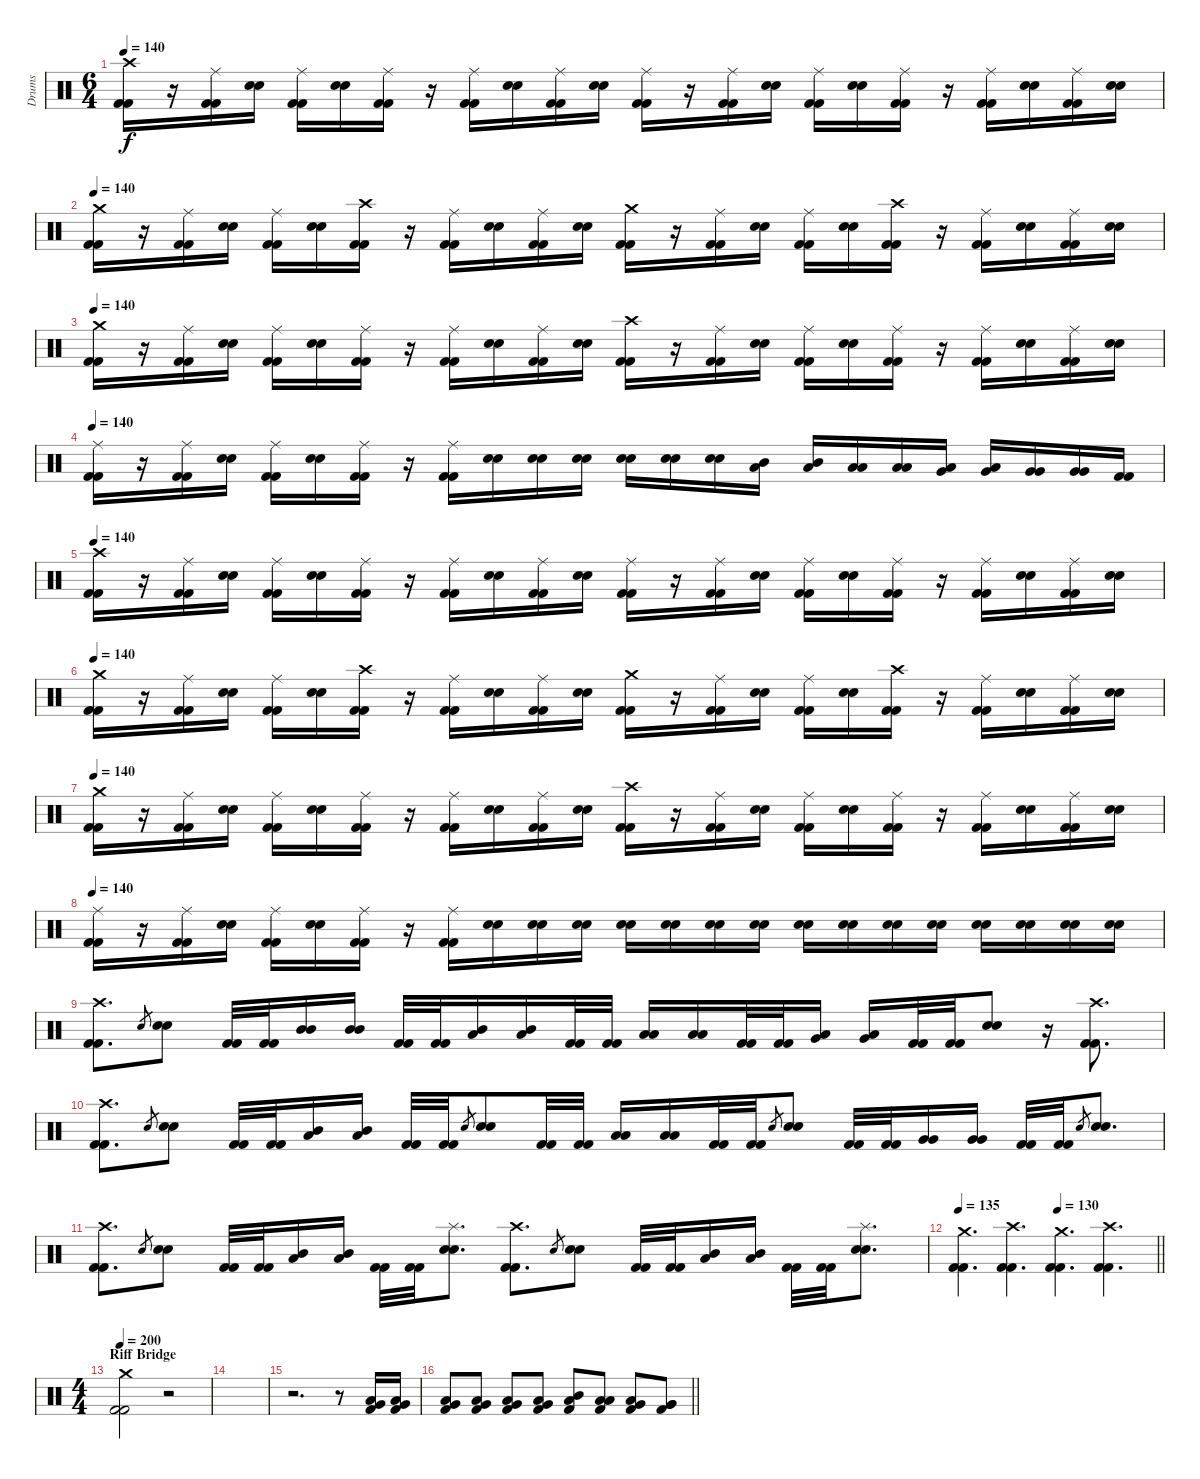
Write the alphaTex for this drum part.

\track ("Drums" "Drums") {instrument percussion}
\staff {score}
\articulation defaults
\ts (6 4)
\tempo 140
\clef neutral
\ks c
("Crash high (hit)" "Kick (hit) 2" "Kick (hit) 2").16{dy f} r.16 ("Ride (middle)" "Kick (hit) 2" "Kick (hit) 2").16 ("Snare (hit) 2" "Snare (hit) 2").16 ("Ride (middle)" "Kick (hit) 2" "Kick (hit) 2").16 ("Snare (hit) 2" "Snare (hit) 2").16 ("Ride (middle)" "Kick (hit) 2" "Kick (hit) 2").16 r.16 ("Ride (middle)" "Kick (hit) 2" "Kick (hit) 2").16 ("Snare (hit) 2" "Snare (hit) 2").16 ("Ride (middle)" "Kick (hit) 2" "Kick (hit) 2").16 ("Snare (hit) 2" "Snare (hit) 2").16 ("Ride (middle)" "Kick (hit) 2" "Kick (hit) 2").16 r.16 ("Ride (middle)" "Kick (hit) 2" "Kick (hit) 2").16 ("Snare (hit) 2" "Snare (hit) 2").16 ("Ride (middle)" "Kick (hit) 2" "Kick (hit) 2").16 ("Snare (hit) 2" "Snare (hit) 2").16 ("Ride (middle)" "Kick (hit) 2" "Kick (hit) 2").16 r.16 ("Ride (middle)" "Kick (hit) 2" "Kick (hit) 2").16 ("Snare (hit) 2" "Snare (hit) 2").16 ("Ride (middle)" "Kick (hit) 2" "Kick (hit) 2").16 ("Snare (hit) 2" "Snare (hit) 2").16 |
\tempo 140
("Crash medium (hit)" "Kick (hit) 2" "Kick (hit) 2").16 r.16 ("Ride (middle)" "Kick (hit) 2" "Kick (hit) 2").16 ("Snare (hit) 2" "Snare (hit) 2").16 ("Ride (middle)" "Kick (hit) 2" "Kick (hit) 2").16 ("Snare (hit) 2" "Snare (hit) 2").16 ("Crash high (hit)" "Kick (hit) 2" "Kick (hit) 2").16 r.16 ("Ride (middle)" "Kick (hit) 2" "Kick (hit) 2").16 ("Snare (hit) 2" "Snare (hit) 2").16 ("Ride (middle)" "Kick (hit) 2" "Kick (hit) 2").16 ("Snare (hit) 2" "Snare (hit) 2").16 ("Crash medium (hit)" "Kick (hit) 2" "Kick (hit) 2").16 r.16 ("Ride (middle)" "Kick (hit) 2" "Kick (hit) 2").16 ("Snare (hit) 2" "Snare (hit) 2").16 ("Ride (middle)" "Kick (hit) 2" "Kick (hit) 2").16 ("Snare (hit) 2" "Snare (hit) 2").16 ("Crash high (hit)" "Kick (hit) 2" "Kick (hit) 2").16 r.16 ("Ride (middle)" "Kick (hit) 2" "Kick (hit) 2").16 ("Snare (hit) 2" "Snare (hit) 2").16 ("Ride (middle)" "Kick (hit) 2" "Kick (hit) 2").16 ("Snare (hit) 2" "Snare (hit) 2").16 |
\tempo 140
("Crash medium (hit)" "Kick (hit) 2" "Kick (hit) 2").16 r.16 ("Ride (middle)" "Kick (hit) 2" "Kick (hit) 2").16 ("Snare (hit) 2" "Snare (hit) 2").16 ("Ride (middle)" "Kick (hit) 2" "Kick (hit) 2").16 ("Snare (hit) 2" "Snare (hit) 2").16 ("Ride (middle)" "Kick (hit) 2" "Kick (hit) 2").16 r.16 ("Ride (middle)" "Kick (hit) 2" "Kick (hit) 2").16 ("Snare (hit) 2" "Snare (hit) 2").16 ("Ride (middle)" "Kick (hit) 2" "Kick (hit) 2").16 ("Snare (hit) 2" "Snare (hit) 2").16 ("Crash high (hit)" "Kick (hit) 2" "Kick (hit) 2").16 r.16 ("Ride (middle)" "Kick (hit) 2" "Kick (hit) 2").16 ("Snare (hit) 2" "Snare (hit) 2").16 ("Ride (middle)" "Kick (hit) 2" "Kick (hit) 2").16 ("Snare (hit) 2" "Snare (hit) 2").16 ("Ride (middle)" "Kick (hit) 2" "Kick (hit) 2").16 r.16 ("Ride (middle)" "Kick (hit) 2" "Kick (hit) 2").16 ("Snare (hit) 2" "Snare (hit) 2").16 ("Ride (middle)" "Kick (hit) 2" "Kick (hit) 2").16 ("Snare (hit) 2" "Snare (hit) 2").16 |
\tempo 140
("Ride (middle)" "Kick (hit) 2" "Kick (hit) 2").16 r.16 ("Ride (middle)" "Kick (hit) 2" "Kick (hit) 2").16 ("Snare (hit) 2" "Snare (hit) 2").16 ("Ride (middle)" "Kick (hit) 2" "Kick (hit) 2").16 ("Snare (hit) 2" "Snare (hit) 2").16 ("Ride (middle)" "Kick (hit) 2" "Kick (hit) 2").16 r.16 ("Ride (middle)" "Kick (hit) 2" "Kick (hit) 2").16 ("Snare (hit) 2" "Snare (hit) 2").16 ("Snare (hit) 2" "Snare (hit) 2").16 ("Snare (hit) 2" "Snare (hit) 2").16 ("Snare (hit) 2" "Snare (hit) 2").16 ("Snare (hit) 2" "Snare (hit) 2").16 ("Snare (hit) 2" "Snare (hit) 2").16 ("Mid Tom (hit)" "Low Tom (hit)").16 ("Mid Tom (hit)" "Low Tom (hit)").16 ("Low Tom (hit)" "Low Tom (hit)").16 ("Low Tom (hit)" "Low Tom (hit)").16 ("Very Low Tom (hit)" "Low Tom (hit)").16 ("Very Low Tom (hit)" "Low Tom (hit)").16 ("Very Low Tom (hit)" "Very Low Tom (hit)").16 ("Very Low Tom (hit)" "Very Low Tom (hit)").16 ("Kick (hit) 2" "Kick (hit) 2").16 |
\tempo 140
("Crash high (hit)" "Kick (hit) 2" "Kick (hit) 2").16 r.16 ("Ride (middle)" "Kick (hit) 2" "Kick (hit) 2").16 ("Snare (hit) 2" "Snare (hit) 2").16 ("Ride (middle)" "Kick (hit) 2" "Kick (hit) 2").16 ("Snare (hit) 2" "Snare (hit) 2").16 ("Ride (middle)" "Kick (hit) 2" "Kick (hit) 2").16 r.16 ("Ride (middle)" "Kick (hit) 2" "Kick (hit) 2").16 ("Snare (hit) 2" "Snare (hit) 2").16 ("Ride (middle)" "Kick (hit) 2" "Kick (hit) 2").16 ("Snare (hit) 2" "Snare (hit) 2").16 ("Ride (middle)" "Kick (hit) 2" "Kick (hit) 2").16 r.16 ("Ride (middle)" "Kick (hit) 2" "Kick (hit) 2").16 ("Snare (hit) 2" "Snare (hit) 2").16 ("Ride (middle)" "Kick (hit) 2" "Kick (hit) 2").16 ("Snare (hit) 2" "Snare (hit) 2").16 ("Ride (middle)" "Kick (hit) 2" "Kick (hit) 2").16 r.16 ("Ride (middle)" "Kick (hit) 2" "Kick (hit) 2").16 ("Snare (hit) 2" "Snare (hit) 2").16 ("Ride (middle)" "Kick (hit) 2" "Kick (hit) 2").16 ("Snare (hit) 2" "Snare (hit) 2").16 |
\tempo 140
("Crash medium (hit)" "Kick (hit) 2" "Kick (hit) 2").16 r.16 ("Ride (middle)" "Kick (hit) 2" "Kick (hit) 2").16 ("Snare (hit) 2" "Snare (hit) 2").16 ("Ride (middle)" "Kick (hit) 2" "Kick (hit) 2").16 ("Snare (hit) 2" "Snare (hit) 2").16 ("Crash high (hit)" "Kick (hit) 2" "Kick (hit) 2").16 r.16 ("Ride (middle)" "Kick (hit) 2" "Kick (hit) 2").16 ("Snare (hit) 2" "Snare (hit) 2").16 ("Ride (middle)" "Kick (hit) 2" "Kick (hit) 2").16 ("Snare (hit) 2" "Snare (hit) 2").16 ("Crash medium (hit)" "Kick (hit) 2" "Kick (hit) 2").16 r.16 ("Ride (middle)" "Kick (hit) 2" "Kick (hit) 2").16 ("Snare (hit) 2" "Snare (hit) 2").16 ("Ride (middle)" "Kick (hit) 2" "Kick (hit) 2").16 ("Snare (hit) 2" "Snare (hit) 2").16 ("Crash high (hit)" "Kick (hit) 2" "Kick (hit) 2").16 r.16 ("Ride (middle)" "Kick (hit) 2" "Kick (hit) 2").16 ("Snare (hit) 2" "Snare (hit) 2").16 ("Ride (middle)" "Kick (hit) 2" "Kick (hit) 2").16 ("Snare (hit) 2" "Snare (hit) 2").16 |
\tempo 140
("Crash medium (hit)" "Kick (hit) 2" "Kick (hit) 2").16 r.16 ("Ride (middle)" "Kick (hit) 2" "Kick (hit) 2").16 ("Snare (hit) 2" "Snare (hit) 2").16 ("Ride (middle)" "Kick (hit) 2" "Kick (hit) 2").16 ("Snare (hit) 2" "Snare (hit) 2").16 ("Ride (middle)" "Kick (hit) 2" "Kick (hit) 2").16 r.16 ("Ride (middle)" "Kick (hit) 2" "Kick (hit) 2").16 ("Snare (hit) 2" "Snare (hit) 2").16 ("Ride (middle)" "Kick (hit) 2" "Kick (hit) 2").16 ("Snare (hit) 2" "Snare (hit) 2").16 ("Crash high (hit)" "Kick (hit) 2" "Kick (hit) 2").16 r.16 ("Ride (middle)" "Kick (hit) 2" "Kick (hit) 2").16 ("Snare (hit) 2" "Snare (hit) 2").16 ("Ride (middle)" "Kick (hit) 2" "Kick (hit) 2").16 ("Snare (hit) 2" "Snare (hit) 2").16 ("Ride (middle)" "Kick (hit) 2" "Kick (hit) 2").16 r.16 ("Ride (middle)" "Kick (hit) 2" "Kick (hit) 2").16 ("Snare (hit) 2" "Snare (hit) 2").16 ("Ride (middle)" "Kick (hit) 2" "Kick (hit) 2").16 ("Snare (hit) 2" "Snare (hit) 2").16 |
\tempo 140
("Ride (middle)" "Kick (hit) 2" "Kick (hit) 2").16 r.16 ("Ride (middle)" "Kick (hit) 2" "Kick (hit) 2").16 ("Snare (hit) 2" "Snare (hit) 2").16 ("Ride (middle)" "Kick (hit) 2" "Kick (hit) 2").16 ("Snare (hit) 2" "Snare (hit) 2").16 ("Ride (middle)" "Kick (hit) 2" "Kick (hit) 2").16 r.16 ("Ride (middle)" "Kick (hit) 2" "Kick (hit) 2").16 ("Snare (hit) 2" "Snare (hit) 2").16 ("Snare (hit) 2" "Snare (hit) 2").16 ("Snare (hit) 2" "Snare (hit) 2").16 ("Snare (hit) 2" "Snare (hit) 2").16 ("Snare (hit) 2" "Snare (hit) 2").16 ("Snare (hit) 2" "Snare (hit) 2").16 ("Snare (hit) 2" "Snare (hit) 2").16 ("Snare (hit) 2" "Snare (hit) 2").16 ("Snare (hit) 2" "Snare (hit) 2").16 ("Snare (hit) 2" "Snare (hit) 2").16 ("Snare (hit) 2" "Snare (hit) 2").16 ("Snare (hit) 2" "Snare (hit) 2").16 ("Snare (hit) 2" "Snare (hit) 2").16 ("Snare (hit) 2" "Snare (hit) 2").16 ("Snare (hit) 2" "Snare (hit) 2").16 |
("Crash high (hit)" "Kick (hit) 2" "Kick (hit) 2").8{d} "Snare (hit) 2".8{gr} ("Snare (hit) 2" "Snare (hit) 2").8 ("Kick (hit) 2" "Kick (hit) 2").32 ("Kick (hit) 2" "Kick (hit) 2").32 ("Mid Tom (hit)" "Mid Tom (hit)").16 ("Mid Tom (hit)" "Mid Tom (hit)").16 ("Kick (hit) 2" "Kick (hit) 2").32 ("Kick (hit) 2" "Kick (hit) 2").32 ("Low Tom (hit)" "Mid Tom (hit)").16 ("Mid Tom (hit)" "Low Tom (hit)").16 ("Kick (hit) 2" "Kick (hit) 2").32 ("Kick (hit) 2" "Kick (hit) 2").32 ("Low Tom (hit)" "Low Tom (hit)").16 ("Low Tom (hit)" "Low Tom (hit)").16 ("Kick (hit) 2" "Kick (hit) 2").32 ("Kick (hit) 2" "Kick (hit) 2").32 ("Very Low Tom (hit)" "Low Tom (hit)").16 ("Very Low Tom (hit)" "Low Tom (hit)").16 ("Kick (hit) 2" "Kick (hit) 2").32 ("Kick (hit) 2" "Kick (hit) 2").32 ("Snare (hit) 2" "Snare (hit) 2").8 r.16 ("Crash high (hit)" "Kick (hit) 2" "Kick (hit) 2").8{d} |
("Crash high (hit)" "Kick (hit) 2" "Kick (hit) 2").8{d} "Snare (hit) 2".8{gr} ("Snare (hit) 2" "Snare (hit) 2").8 ("Kick (hit) 2" "Kick (hit) 2").32 ("Kick (hit) 2" "Kick (hit) 2").32 ("Mid Tom (hit)" "Low Tom (hit)").16 ("Mid Tom (hit)" "Low Tom (hit)").16 ("Kick (hit) 2" "Kick (hit) 2").32 ("Kick (hit) 2" "Kick (hit) 2").32 "Snare (hit) 2".8{gr} ("Snare (hit) 2" "Snare (hit) 2").8 ("Kick (hit) 2" "Kick (hit) 2").32 ("Kick (hit) 2" "Kick (hit) 2").32 ("Low Tom (hit)" "Low Tom (hit)").16 ("Low Tom (hit)" "Low Tom (hit)").16 ("Kick (hit) 2" "Kick (hit) 2").32 ("Kick (hit) 2" "Kick (hit) 2").32 "Snare (hit) 2".8{gr} ("Snare (hit) 2" "Snare (hit) 2").8 ("Kick (hit) 2" "Kick (hit) 2").32 ("Kick (hit) 2" "Kick (hit) 2").32 ("Very Low Tom (hit)" "Very Low Tom (hit)").16 ("Very Low Tom (hit)" "Very Low Tom (hit)").16 ("Kick (hit) 2" "Kick (hit) 2").32 ("Kick (hit) 2" "Kick (hit) 2").32 "Snare (hit) 2".8{gr} ("Snare (hit) 2" "Snare (hit) 2").8{d} |
("Crash high (hit)" "Kick (hit) 2" "Kick (hit) 2").8{d} "Snare (hit) 2".8{gr} ("Snare (hit) 2" "Snare (hit) 2").8 ("Kick (hit) 2" "Kick (hit) 2").32 ("Kick (hit) 2" "Kick (hit) 2").32 ("Mid Tom (hit)" "Low Tom (hit)").16 ("Mid Tom (hit)" "Low Tom (hit)").16 ("Kick (hit) 2" "Kick (hit) 2").32 ("Kick (hit) 2" "Kick (hit) 2").32 ("Splash (hit)" "Snare (hit) 2" "Snare (hit) 2").8{d} ("Crash high (hit)" "Kick (hit) 2" "Kick (hit) 2").8{d} "Snare (hit) 2".8{gr} ("Snare (hit) 2" "Snare (hit) 2").8 ("Kick (hit) 2" "Kick (hit) 2").32 ("Kick (hit) 2" "Kick (hit) 2").32 ("Mid Tom (hit)" "Low Tom (hit)").16 ("Mid Tom (hit)" "Low Tom (hit)").16 ("Kick (hit) 2" "Kick (hit) 2").32 ("Kick (hit) 2" "Kick (hit) 2").32 ("Splash (hit)" "Snare (hit) 2" "Snare (hit) 2").8{d} |
\tempo 135
\tempo (130 0.5)
\barLineRight lightlight
("Crash medium (hit)" "Kick (hit) 2" "Kick (hit) 2").4{d} ("Crash high (hit)" "Kick (hit) 2" "Kick (hit) 2").4{d} ("Crash medium (hit)" "Kick (hit) 2" "Kick (hit) 2").4{d} ("Crash high (hit)" "Kick (hit) 2" "Kick (hit) 2").4{d} |
\ts (4 4)
\section ("" "Riff Bridge")
\tempo 200
("Crash medium (hit)" "Kick (hit) 2" "Kick (hit) 2").2 r.2 |
|
r.2{d} r.8 ("Low Tom (hit)" "Very Low Tom (hit)" "Kick (hit) 2").16 ("Low Tom (hit)" "Very Low Tom (hit)" "Kick (hit) 2").16 |
\barLineRight lightlight
("Low Tom (hit)" "Very Low Tom (hit)" "Kick (hit) 2").8 ("Low Tom (hit)" "Very Low Tom (hit)" "Kick (hit) 2").8 ("Low Tom (hit)" "Very Low Tom (hit)" "Kick (hit) 2").8 ("Low Tom (hit)" "Very Low Tom (hit)" "Kick (hit) 2").8 ("Mid Tom (hit)" "Low Tom (hit)" "Kick (hit) 2").8 ("Low Tom (hit)" "Low Tom (hit)" "Kick (hit) 2").8 ("Very Low Tom (hit)" "Low Tom (hit)" "Kick (hit) 2").8 ("Very Low Tom (hit)" "Very Low Tom (hit)" "Kick (hit) 2").8
